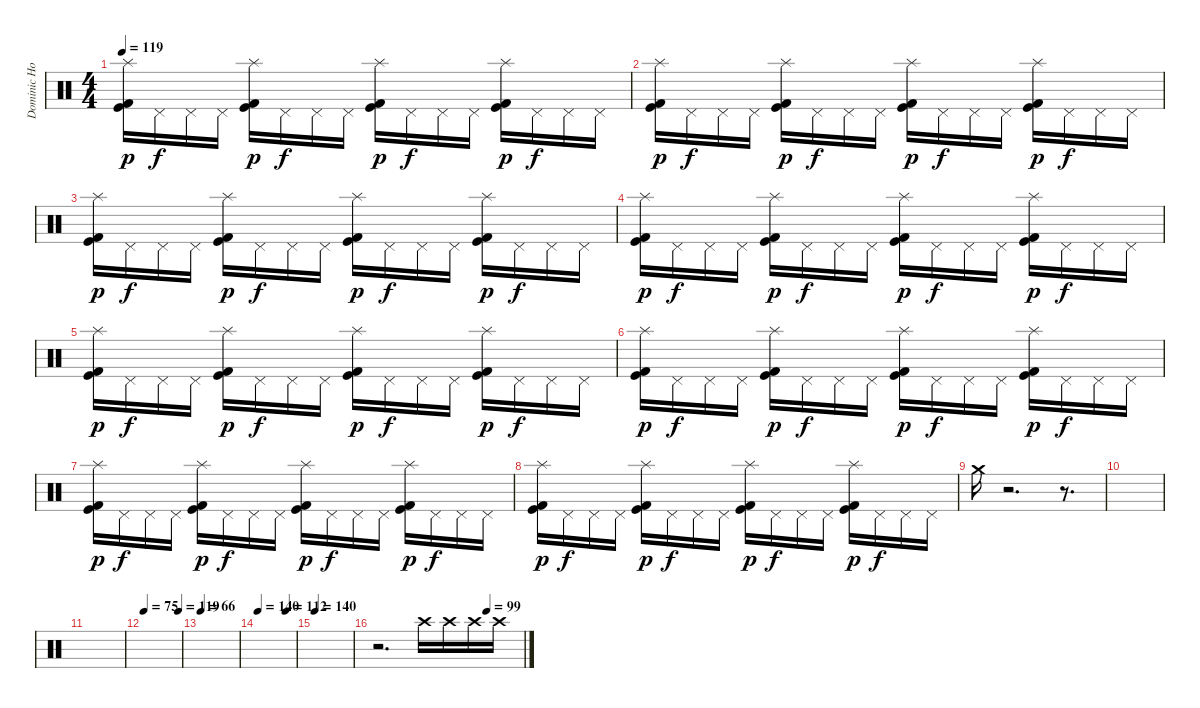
\track ("Dominic Howard" "Dominic Ho") {instrument percussion}
\staff {score}
\articulation defaults
\ts (4 4)
\tempo 119
\clef neutral
\ks c
("Splash (hit)" "Kick (hit)" "Kick (hit) 2").16{dy p} "Pedal Hi-Hat (hit)".16{dy f} "Pedal Hi-Hat (hit)".16 "Pedal Hi-Hat (hit)".16 ("Splash (hit)" "Kick (hit)" "Kick (hit) 2").16{dy p} "Pedal Hi-Hat (hit)".16{dy f} "Pedal Hi-Hat (hit)".16 "Pedal Hi-Hat (hit)".16 ("Splash (hit)" "Kick (hit)" "Kick (hit) 2").16{dy p} "Pedal Hi-Hat (hit)".16{dy f} "Pedal Hi-Hat (hit)".16 "Pedal Hi-Hat (hit)".16 ("Splash (hit)" "Kick (hit)" "Kick (hit) 2").16{dy p} "Pedal Hi-Hat (hit)".16{dy f} "Pedal Hi-Hat (hit)".16 "Pedal Hi-Hat (hit)".16 |
("Splash (hit)" "Kick (hit)" "Kick (hit) 2").16{dy p} "Pedal Hi-Hat (hit)".16{dy f} "Pedal Hi-Hat (hit)".16 "Pedal Hi-Hat (hit)".16 ("Splash (hit)" "Kick (hit)" "Kick (hit) 2").16{dy p} "Pedal Hi-Hat (hit)".16{dy f} "Pedal Hi-Hat (hit)".16 "Pedal Hi-Hat (hit)".16 ("Splash (hit)" "Kick (hit)" "Kick (hit) 2").16{dy p} "Pedal Hi-Hat (hit)".16{dy f} "Pedal Hi-Hat (hit)".16 "Pedal Hi-Hat (hit)".16 ("Splash (hit)" "Kick (hit)" "Kick (hit) 2").16{dy p} "Pedal Hi-Hat (hit)".16{dy f} "Pedal Hi-Hat (hit)".16 "Pedal Hi-Hat (hit)".16 |
("Splash (hit)" "Kick (hit)" "Kick (hit) 2").16{dy p} "Pedal Hi-Hat (hit)".16{dy f} "Pedal Hi-Hat (hit)".16 "Pedal Hi-Hat (hit)".16 ("Splash (hit)" "Kick (hit)" "Kick (hit) 2").16{dy p} "Pedal Hi-Hat (hit)".16{dy f} "Pedal Hi-Hat (hit)".16 "Pedal Hi-Hat (hit)".16 ("Splash (hit)" "Kick (hit)" "Kick (hit) 2").16{dy p} "Pedal Hi-Hat (hit)".16{dy f} "Pedal Hi-Hat (hit)".16 "Pedal Hi-Hat (hit)".16 ("Splash (hit)" "Kick (hit)" "Kick (hit) 2").16{dy p} "Pedal Hi-Hat (hit)".16{dy f} "Pedal Hi-Hat (hit)".16 "Pedal Hi-Hat (hit)".16 |
("Splash (hit)" "Kick (hit)" "Kick (hit) 2").16{dy p} "Pedal Hi-Hat (hit)".16{dy f} "Pedal Hi-Hat (hit)".16 "Pedal Hi-Hat (hit)".16 ("Splash (hit)" "Kick (hit)" "Kick (hit) 2").16{dy p} "Pedal Hi-Hat (hit)".16{dy f} "Pedal Hi-Hat (hit)".16 "Pedal Hi-Hat (hit)".16 ("Splash (hit)" "Kick (hit)" "Kick (hit) 2").16{dy p} "Pedal Hi-Hat (hit)".16{dy f} "Pedal Hi-Hat (hit)".16 "Pedal Hi-Hat (hit)".16 ("Splash (hit)" "Kick (hit)" "Kick (hit) 2").16{dy p} "Pedal Hi-Hat (hit)".16{dy f} "Pedal Hi-Hat (hit)".16 "Pedal Hi-Hat (hit)".16 |
("Splash (hit)" "Kick (hit)" "Kick (hit) 2").16{dy p} "Pedal Hi-Hat (hit)".16{dy f} "Pedal Hi-Hat (hit)".16 "Pedal Hi-Hat (hit)".16 ("Splash (hit)" "Kick (hit)" "Kick (hit) 2").16{dy p} "Pedal Hi-Hat (hit)".16{dy f} "Pedal Hi-Hat (hit)".16 "Pedal Hi-Hat (hit)".16 ("Splash (hit)" "Kick (hit)" "Kick (hit) 2").16{dy p} "Pedal Hi-Hat (hit)".16{dy f} "Pedal Hi-Hat (hit)".16 "Pedal Hi-Hat (hit)".16 ("Splash (hit)" "Kick (hit)" "Kick (hit) 2").16{dy p} "Pedal Hi-Hat (hit)".16{dy f} "Pedal Hi-Hat (hit)".16 "Pedal Hi-Hat (hit)".16 |
("Splash (hit)" "Kick (hit)" "Kick (hit) 2").16{dy p} "Pedal Hi-Hat (hit)".16{dy f} "Pedal Hi-Hat (hit)".16 "Pedal Hi-Hat (hit)".16 ("Splash (hit)" "Kick (hit)" "Kick (hit) 2").16{dy p} "Pedal Hi-Hat (hit)".16{dy f} "Pedal Hi-Hat (hit)".16 "Pedal Hi-Hat (hit)".16 ("Splash (hit)" "Kick (hit)" "Kick (hit) 2").16{dy p} "Pedal Hi-Hat (hit)".16{dy f} "Pedal Hi-Hat (hit)".16 "Pedal Hi-Hat (hit)".16 ("Splash (hit)" "Kick (hit)" "Kick (hit) 2").16{dy p} "Pedal Hi-Hat (hit)".16{dy f} "Pedal Hi-Hat (hit)".16 "Pedal Hi-Hat (hit)".16 |
("Splash (hit)" "Kick (hit)" "Kick (hit) 2").16{dy p} "Pedal Hi-Hat (hit)".16{dy f} "Pedal Hi-Hat (hit)".16 "Pedal Hi-Hat (hit)".16 ("Splash (hit)" "Kick (hit)" "Kick (hit) 2").16{dy p} "Pedal Hi-Hat (hit)".16{dy f} "Pedal Hi-Hat (hit)".16 "Pedal Hi-Hat (hit)".16 ("Splash (hit)" "Kick (hit)" "Kick (hit) 2").16{dy p} "Pedal Hi-Hat (hit)".16{dy f} "Pedal Hi-Hat (hit)".16 "Pedal Hi-Hat (hit)".16 ("Splash (hit)" "Kick (hit)" "Kick (hit) 2").16{dy p} "Pedal Hi-Hat (hit)".16{dy f} "Pedal Hi-Hat (hit)".16 "Pedal Hi-Hat (hit)".16 |
("Splash (hit)" "Kick (hit)" "Kick (hit) 2").16{dy p} "Pedal Hi-Hat (hit)".16{dy f} "Pedal Hi-Hat (hit)".16 "Pedal Hi-Hat (hit)".16 ("Splash (hit)" "Kick (hit)" "Kick (hit) 2").16{dy p} "Pedal Hi-Hat (hit)".16{dy f} "Pedal Hi-Hat (hit)".16 "Pedal Hi-Hat (hit)".16 ("Splash (hit)" "Kick (hit)" "Kick (hit) 2").16{dy p} "Pedal Hi-Hat (hit)".16{dy f} "Pedal Hi-Hat (hit)".16 "Pedal Hi-Hat (hit)".16 ("Splash (hit)" "Kick (hit)" "Kick (hit) 2").16{dy p} "Pedal Hi-Hat (hit)".16{dy f} "Pedal Hi-Hat (hit)".16 "Pedal Hi-Hat (hit)".16 |
"Crash medium (hit)".16 r.2{d} r.8{d} |
|
|
\tempo 75
\tempo (119 0.9375)
|
\tempo 66
|
\tempo 140
\tempo (112 0.75)
|
\tempo 140
|
\tempo (99 0.75)
r.2{d} "Crash high (hit)".16{volume 4} "Crash high (hit)".16{volume 16} "Crash high (hit)".16 "Crash high (hit)".16
